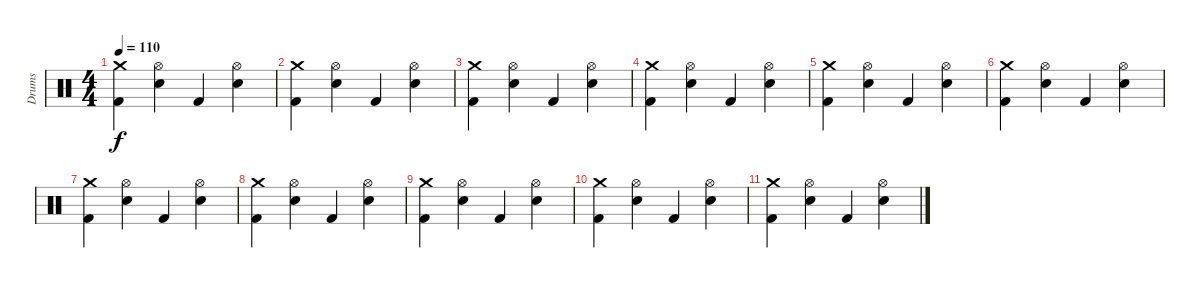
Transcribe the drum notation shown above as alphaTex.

\track ("Drums" "Drums") {instrument percussion}
\staff {score}
\articulation defaults
\ts (4 4)
\tempo 110
\clef neutral
\ks c
("Kick (hit) 2" "Crash medium (hit)").4{dy f} ("Hi-Hat (open)" "Electric Snare (hit)").4 "Kick (hit) 2".4 ("Hi-Hat (open)" "Electric Snare (hit)").4 |
("Kick (hit) 2" "Crash medium (hit)").4 ("Hi-Hat (open)" "Electric Snare (hit)").4 "Kick (hit) 2".4 ("Hi-Hat (open)" "Electric Snare (hit)").4 |
("Kick (hit) 2" "Crash medium (hit)").4 ("Hi-Hat (open)" "Electric Snare (hit)").4 "Kick (hit) 2".4 ("Hi-Hat (open)" "Electric Snare (hit)").4 |
("Kick (hit) 2" "Crash medium (hit)").4 ("Hi-Hat (open)" "Electric Snare (hit)").4 "Kick (hit) 2".4 ("Hi-Hat (open)" "Electric Snare (hit)").4 |
("Kick (hit) 2" "Crash medium (hit)").4 ("Hi-Hat (open)" "Electric Snare (hit)").4 "Kick (hit) 2".4 ("Hi-Hat (open)" "Electric Snare (hit)").4 |
("Kick (hit) 2" "Crash medium (hit)").4 ("Hi-Hat (open)" "Electric Snare (hit)").4 "Kick (hit) 2".4 ("Hi-Hat (open)" "Electric Snare (hit)").4 |
("Kick (hit) 2" "Crash medium (hit)").4 ("Hi-Hat (open)" "Electric Snare (hit)").4 "Kick (hit) 2".4 ("Hi-Hat (open)" "Electric Snare (hit)").4 |
("Kick (hit) 2" "Crash medium (hit)").4 ("Hi-Hat (open)" "Electric Snare (hit)").4 "Kick (hit) 2".4 ("Hi-Hat (open)" "Electric Snare (hit)").4 |
("Kick (hit) 2" "Crash medium (hit)").4 ("Hi-Hat (open)" "Electric Snare (hit)").4 "Kick (hit) 2".4 ("Hi-Hat (open)" "Electric Snare (hit)").4 |
("Kick (hit) 2" "Crash medium (hit)").4 ("Hi-Hat (open)" "Electric Snare (hit)").4 "Kick (hit) 2".4 ("Hi-Hat (open)" "Electric Snare (hit)").4 |
("Kick (hit) 2" "Crash medium (hit)").4 ("Hi-Hat (open)" "Electric Snare (hit)").4 "Kick (hit) 2".4 ("Hi-Hat (open)" "Electric Snare (hit)").4
